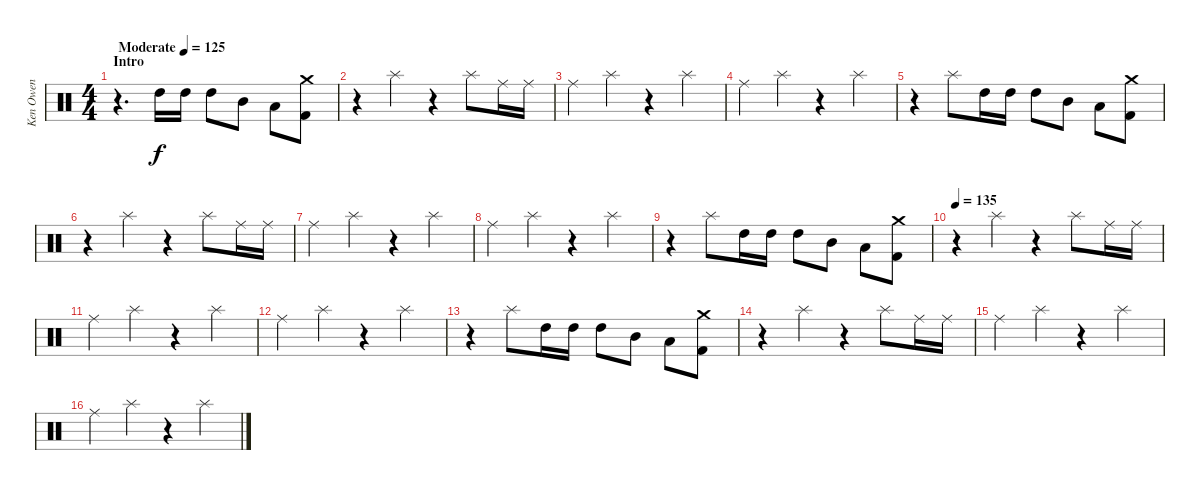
\track ("Ken Owen" "Ken Owen") {instrument percussion}
\staff {score}
\articulation defaults
\ts (4 4)
\section ("" "Intro")
\tempo (125 "Moderate")
\clef neutral
\ks c
r.4{d dy f} "High Tom (hit)".16 "High Tom (hit)".16 "High Tom (hit)".8 "Mid Tom (hit)".8 "Low Tom (hit)".8 ("Crash medium (hit)" "Kick (hit) 2").8 |
r.4 "Splash (hit)".4 r.4 "Splash (hit)".8 "Ride (middle)".16 "Ride (middle)".16 |
"Ride (middle)".4 "Splash (hit)".4 r.4 "Splash (hit)".4 |
"Ride (middle)".4 "Splash (hit)".4 r.4 "Splash (hit)".4 |
r.4 "Splash (hit)".8 "High Tom (hit)".16 "High Tom (hit)".16 "High Tom (hit)".8 "Mid Tom (hit)".8 "Low Tom (hit)".8 ("Crash medium (hit)" "Kick (hit) 2").8 |
r.4 "Splash (hit)".4 r.4 "Splash (hit)".8 "Ride (middle)".16 "Ride (middle)".16 |
"Ride (middle)".4 "Splash (hit)".4 r.4 "Splash (hit)".4 |
"Ride (middle)".4 "Splash (hit)".4 r.4 "Splash (hit)".4 |
r.4 "Splash (hit)".8 "High Tom (hit)".16 "High Tom (hit)".16 "High Tom (hit)".8 "Mid Tom (hit)".8 "Low Tom (hit)".8 ("Crash medium (hit)" "Kick (hit) 2").8 |
\tempo 135
r.4 "Splash (hit)".4 r.4 "Splash (hit)".8 "Ride (middle)".16 "Ride (middle)".16 |
"Ride (middle)".4 "Splash (hit)".4 r.4 "Splash (hit)".4 |
"Ride (middle)".4 "Splash (hit)".4 r.4 "Splash (hit)".4 |
r.4 "Splash (hit)".8 "High Tom (hit)".16 "High Tom (hit)".16 "High Tom (hit)".8 "Mid Tom (hit)".8 "Low Tom (hit)".8 ("Crash medium (hit)" "Kick (hit) 2").8 |
r.4 "Splash (hit)".4 r.4 "Splash (hit)".8 "Ride (middle)".16 "Ride (middle)".16 |
"Ride (middle)".4 "Splash (hit)".4 r.4 "Splash (hit)".4 |
"Ride (middle)".4 "Splash (hit)".4 r.4 "Splash (hit)".4
